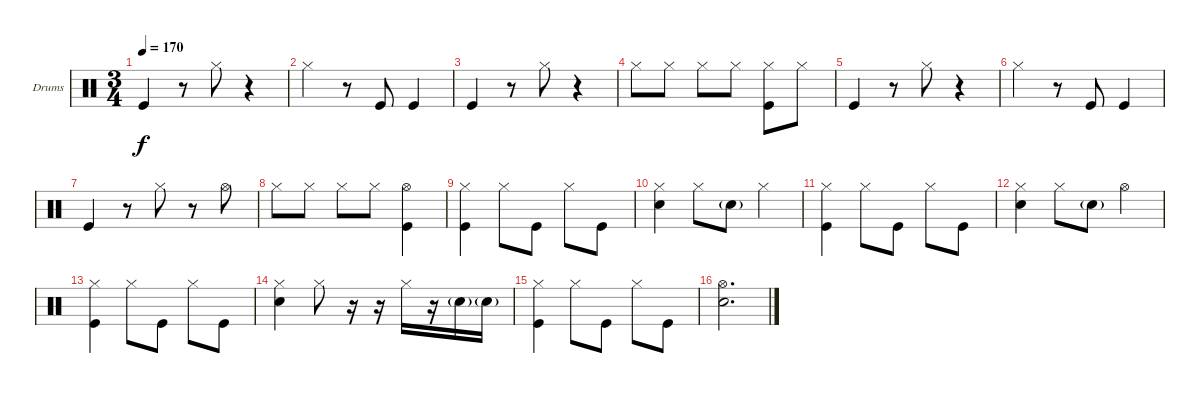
\defaultSystemsLayout 4
\bracketExtendMode groupsimilarinstruments
\firstSystemTrackNameOrientation horizontal
\otherSystemsTrackNameOrientation horizontal
\track ("Drums" "Drums") {instrument percussion}
\staff {score}
\articulation defaults
\ts (3 4)
\tempo 170
\clef neutral
\ks c "Kick (hit)".4{dy f}
r.8 "Hi-Hat (closed)".8 r.4 |
"Hi-Hat (closed)".4 r.8 "Kick (hit)".8 "Kick (hit)".4 |
"Kick (hit)".4 r.8 "Hi-Hat (closed)".8 r.4 |
"Hi-Hat (closed)".8 "Hi-Hat (closed)".8 "Hi-Hat (closed)".8 "Hi-Hat (closed)".8 ("Kick (hit)" "Hi-Hat (closed)").8 "Hi-Hat (closed)".8 |
"Kick (hit)".4 r.8 "Hi-Hat (closed)".8 r.4 |
"Hi-Hat (closed)".4 r.8 "Kick (hit)".8 "Kick (hit)".4 |
"Kick (hit)".4 r.8 "Hi-Hat (closed)".8 r.8 "Hi-Hat (open)".8 |
"Hi-Hat (closed)".8 "Hi-Hat (closed)".8 "Hi-Hat (closed)".8 "Hi-Hat (closed)".8 ("Kick (hit)" "Hi-Hat (open)").4 |
("Kick (hit)" "Hi-Hat (closed)").4 "Hi-Hat (closed)".8 "Kick (hit)".8 "Hi-Hat (closed)".8 "Kick (hit)".8 |
("Snare (hit) 2" "Hi-Hat (closed)").4 "Hi-Hat (closed)".8 "Snare (hit) 2"{g}.8 "Hi-Hat (closed)".4 |
("Kick (hit)" "Hi-Hat (closed)").4 "Hi-Hat (closed)".8 "Kick (hit)".8 "Hi-Hat (closed)".8 "Kick (hit)".8 |
("Snare (hit) 2" "Hi-Hat (closed)").4 "Hi-Hat (closed)".8 "Snare (hit) 2"{g}.8 "Hi-Hat (open)".4 |
("Kick (hit)" "Hi-Hat (closed)").4 "Hi-Hat (closed)".8 "Kick (hit)".8 "Hi-Hat (closed)".8 "Kick (hit)".8 |
("Snare (hit) 2" "Hi-Hat (closed)").4 "Hi-Hat (closed)".8 r.16 r.16 "Hi-Hat (closed)".16 r.16 "Snare (hit) 2"{g}.16 "Snare (hit) 2"{g}.16 |
("Kick (hit)" "Hi-Hat (closed)").4 "Hi-Hat (closed)".8 "Kick (hit)".8 "Hi-Hat (closed)".8 "Kick (hit)".8 |
("Snare (hit) 2" "Hi-Hat (open)").2{d}
